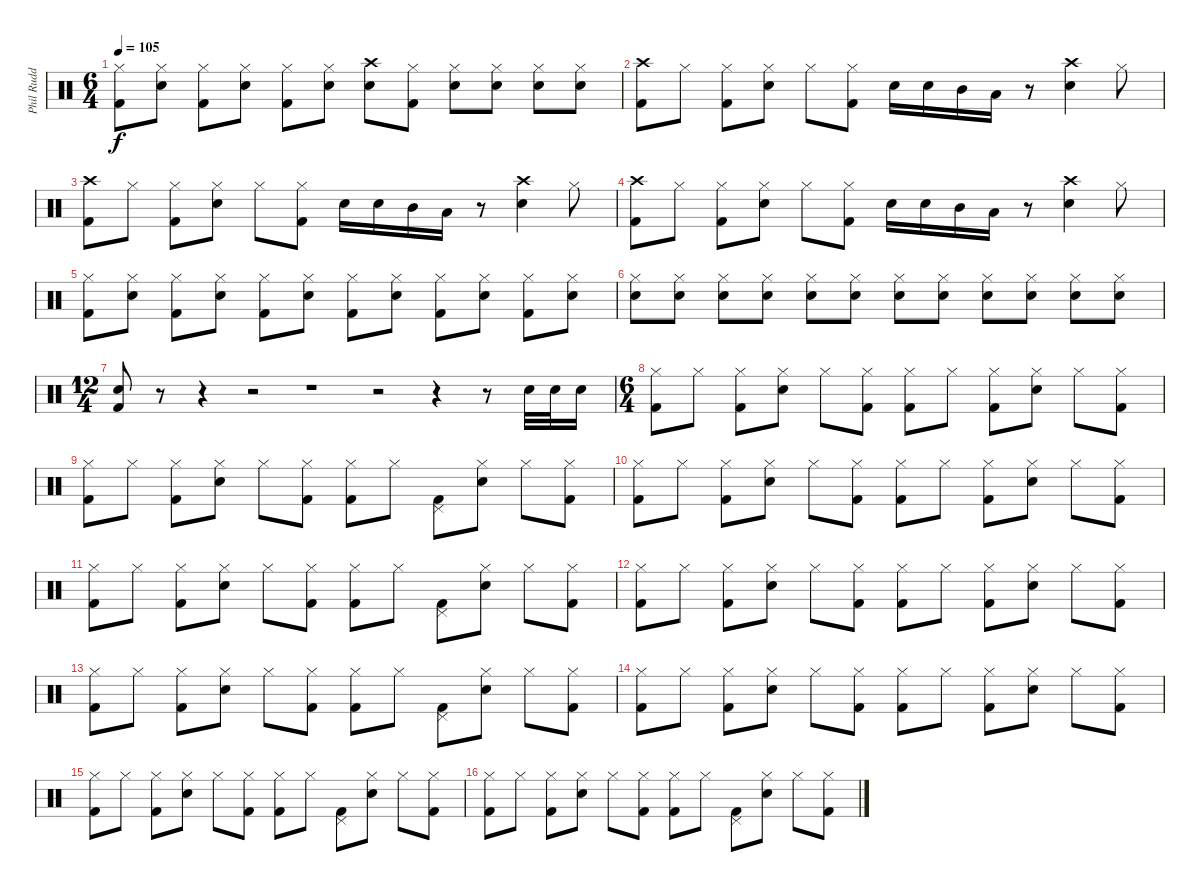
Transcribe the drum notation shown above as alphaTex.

\track ("Phil Rudd" "Phil Rudd") {instrument percussion}
\staff {score}
\articulation defaults
\ts (6 4)
\tempo 105
\clef neutral
\ks c
("Hi-Hat (closed)" "Kick (hit) 2").8{dy f} ("Hi-Hat (closed)" "Electric Snare (hit)").8 ("Hi-Hat (closed)" "Kick (hit) 2").8 ("Hi-Hat (closed)" "Electric Snare (hit)").8 ("Hi-Hat (closed)" "Kick (hit) 2").8 ("Hi-Hat (closed)" "Electric Snare (hit)").8 ("Crash high (hit)" "Electric Snare (hit)").8 ("Hi-Hat (closed)" "Kick (hit) 2").8 ("Hi-Hat (closed)" "Electric Snare (hit)").8 ("Hi-Hat (closed)" "Electric Snare (hit)").8 ("Hi-Hat (closed)" "Electric Snare (hit)").8 ("Hi-Hat (closed)" "Electric Snare (hit)").8 |
("Crash high (hit)" "Kick (hit) 2").8 "Hi-Hat (closed)".8 ("Hi-Hat (closed)" "Kick (hit) 2").8 ("Hi-Hat (closed)" "Electric Snare (hit)").8 "Hi-Hat (closed)".8 ("Hi-Hat (closed)" "Kick (hit) 2").8 "Electric Snare (hit)".16 "Electric Snare (hit)".16 "Mid Tom (hit)".16 "Low Tom (hit)".16 r.8 ("Crash high (hit)" "Electric Snare (hit)").4 "Hi-Hat (closed)".8 |
("Crash high (hit)" "Kick (hit) 2").8 "Hi-Hat (closed)".8 ("Hi-Hat (closed)" "Kick (hit) 2").8 ("Hi-Hat (closed)" "Electric Snare (hit)").8 "Hi-Hat (closed)".8 ("Hi-Hat (closed)" "Kick (hit) 2").8 "Electric Snare (hit)".16 "Electric Snare (hit)".16 "Mid Tom (hit)".16 "Low Tom (hit)".16 r.8 ("Crash high (hit)" "Electric Snare (hit)").4 "Hi-Hat (closed)".8 |
("Crash high (hit)" "Kick (hit) 2").8 "Hi-Hat (closed)".8 ("Hi-Hat (closed)" "Kick (hit) 2").8 ("Hi-Hat (closed)" "Electric Snare (hit)").8 "Hi-Hat (closed)".8 ("Hi-Hat (closed)" "Kick (hit) 2").8 "Electric Snare (hit)".16 "Electric Snare (hit)".16 "Mid Tom (hit)".16 "Low Tom (hit)".16 r.8 ("Crash high (hit)" "Electric Snare (hit)").4 "Hi-Hat (closed)".8 |
("Hi-Hat (closed)" "Kick (hit) 2").8 ("Hi-Hat (closed)" "Electric Snare (hit)").8 ("Hi-Hat (closed)" "Kick (hit) 2").8 ("Hi-Hat (closed)" "Electric Snare (hit)").8 ("Hi-Hat (closed)" "Kick (hit) 2").8 ("Hi-Hat (closed)" "Electric Snare (hit)").8 ("Hi-Hat (closed)" "Kick (hit) 2").8 ("Hi-Hat (closed)" "Electric Snare (hit)").8 ("Hi-Hat (closed)" "Kick (hit) 2").8 ("Hi-Hat (closed)" "Electric Snare (hit)").8 ("Hi-Hat (closed)" "Kick (hit) 2").8 ("Hi-Hat (closed)" "Electric Snare (hit)").8 |
("Hi-Hat (closed)" "Electric Snare (hit)").8 ("Hi-Hat (closed)" "Electric Snare (hit)").8 ("Hi-Hat (closed)" "Electric Snare (hit)").8 ("Hi-Hat (closed)" "Electric Snare (hit)").8 ("Hi-Hat (closed)" "Electric Snare (hit)").8 ("Hi-Hat (closed)" "Electric Snare (hit)").8 ("Hi-Hat (closed)" "Electric Snare (hit)").8 ("Hi-Hat (closed)" "Electric Snare (hit)").8 ("Hi-Hat (closed)" "Electric Snare (hit)").8 ("Hi-Hat (closed)" "Electric Snare (hit)").8 ("Hi-Hat (closed)" "Electric Snare (hit)").8 ("Hi-Hat (closed)" "Electric Snare (hit)").8 |
\ts (12 4)
("Electric Snare (hit)" "Kick (hit) 2").8 r.8 r.4 r.2 r.1 r.2 r.4 r.8 "Electric Snare (hit)".32 "Electric Snare (hit)".32 "Electric Snare (hit)".16 |
\ts (6 4)
("Hi-Hat (closed)" "Kick (hit) 2").8 "Hi-Hat (closed)".8 ("Hi-Hat (closed)" "Kick (hit) 2").8 ("Hi-Hat (closed)" "Electric Snare (hit)").8 "Hi-Hat (closed)".8 ("Hi-Hat (closed)" "Kick (hit) 2").8 ("Hi-Hat (closed)" "Kick (hit) 2").8 "Hi-Hat (closed)".8 ("Hi-Hat (closed)" "Kick (hit) 2").8 ("Hi-Hat (closed)" "Electric Snare (hit)").8 "Hi-Hat (closed)".8 ("Hi-Hat (closed)" "Kick (hit) 2").8 |
("Hi-Hat (closed)" "Kick (hit) 2").8 "Hi-Hat (closed)".8 ("Hi-Hat (closed)" "Kick (hit) 2").8 ("Hi-Hat (closed)" "Electric Snare (hit)").8 "Hi-Hat (closed)".8 ("Hi-Hat (closed)" "Kick (hit) 2").8 ("Hi-Hat (closed)" "Kick (hit) 2").8 "Hi-Hat (closed)".8 ("Pedal Hi-Hat (hit)" "Kick (hit) 2").8 ("Hi-Hat (closed)" "Electric Snare (hit)").8 "Hi-Hat (closed)".8 ("Hi-Hat (closed)" "Kick (hit) 2").8 |
("Hi-Hat (closed)" "Kick (hit) 2").8 "Hi-Hat (closed)".8 ("Hi-Hat (closed)" "Kick (hit) 2").8 ("Hi-Hat (closed)" "Electric Snare (hit)").8 "Hi-Hat (closed)".8 ("Hi-Hat (closed)" "Kick (hit) 2").8 ("Hi-Hat (closed)" "Kick (hit) 2").8 "Hi-Hat (closed)".8 ("Hi-Hat (closed)" "Kick (hit) 2").8 ("Hi-Hat (closed)" "Electric Snare (hit)").8 "Hi-Hat (closed)".8 ("Hi-Hat (closed)" "Kick (hit) 2").8 |
("Hi-Hat (closed)" "Kick (hit) 2").8 "Hi-Hat (closed)".8 ("Hi-Hat (closed)" "Kick (hit) 2").8 ("Hi-Hat (closed)" "Electric Snare (hit)").8 "Hi-Hat (closed)".8 ("Hi-Hat (closed)" "Kick (hit) 2").8 ("Hi-Hat (closed)" "Kick (hit) 2").8 "Hi-Hat (closed)".8 ("Pedal Hi-Hat (hit)" "Kick (hit) 2").8 ("Hi-Hat (closed)" "Electric Snare (hit)").8 "Hi-Hat (closed)".8 ("Hi-Hat (closed)" "Kick (hit) 2").8 |
("Hi-Hat (closed)" "Kick (hit) 2").8 "Hi-Hat (closed)".8 ("Hi-Hat (closed)" "Kick (hit) 2").8 ("Hi-Hat (closed)" "Electric Snare (hit)").8 "Hi-Hat (closed)".8 ("Hi-Hat (closed)" "Kick (hit) 2").8 ("Hi-Hat (closed)" "Kick (hit) 2").8 "Hi-Hat (closed)".8 ("Hi-Hat (closed)" "Kick (hit) 2").8 ("Hi-Hat (closed)" "Electric Snare (hit)").8 "Hi-Hat (closed)".8 ("Hi-Hat (closed)" "Kick (hit) 2").8 |
("Hi-Hat (closed)" "Kick (hit) 2").8 "Hi-Hat (closed)".8 ("Hi-Hat (closed)" "Kick (hit) 2").8 ("Hi-Hat (closed)" "Electric Snare (hit)").8 "Hi-Hat (closed)".8 ("Hi-Hat (closed)" "Kick (hit) 2").8 ("Hi-Hat (closed)" "Kick (hit) 2").8 "Hi-Hat (closed)".8 ("Pedal Hi-Hat (hit)" "Kick (hit) 2").8 ("Hi-Hat (closed)" "Electric Snare (hit)").8 "Hi-Hat (closed)".8 ("Hi-Hat (closed)" "Kick (hit) 2").8 |
("Hi-Hat (closed)" "Kick (hit) 2").8{volume 11} "Hi-Hat (closed)".8 ("Hi-Hat (closed)" "Kick (hit) 2").8 ("Hi-Hat (closed)" "Electric Snare (hit)").8 "Hi-Hat (closed)".8 ("Hi-Hat (closed)" "Kick (hit) 2").8 ("Hi-Hat (closed)" "Kick (hit) 2").8 "Hi-Hat (closed)".8 ("Hi-Hat (closed)" "Kick (hit) 2").8 ("Hi-Hat (closed)" "Electric Snare (hit)").8 "Hi-Hat (closed)".8 ("Hi-Hat (closed)" "Kick (hit) 2").8 |
("Hi-Hat (closed)" "Kick (hit) 2").8{volume 9} "Hi-Hat (closed)".8 ("Hi-Hat (closed)" "Kick (hit) 2").8 ("Hi-Hat (closed)" "Electric Snare (hit)").8 "Hi-Hat (closed)".8 ("Hi-Hat (closed)" "Kick (hit) 2").8 ("Hi-Hat (closed)" "Kick (hit) 2").8 "Hi-Hat (closed)".8 ("Pedal Hi-Hat (hit)" "Kick (hit) 2").8 ("Hi-Hat (closed)" "Electric Snare (hit)").8 "Hi-Hat (closed)".8 ("Hi-Hat (closed)" "Kick (hit) 2").8 |
("Hi-Hat (closed)" "Kick (hit) 2").8{volume 7} "Hi-Hat (closed)".8 ("Hi-Hat (closed)" "Kick (hit) 2").8 ("Hi-Hat (closed)" "Electric Snare (hit)").8 "Hi-Hat (closed)".8 ("Hi-Hat (closed)" "Kick (hit) 2").8 ("Hi-Hat (closed)" "Kick (hit) 2").8 "Hi-Hat (closed)".8 ("Pedal Hi-Hat (hit)" "Kick (hit) 2").8 ("Hi-Hat (closed)" "Electric Snare (hit)").8 "Hi-Hat (closed)".8 ("Hi-Hat (closed)" "Kick (hit) 2").8
